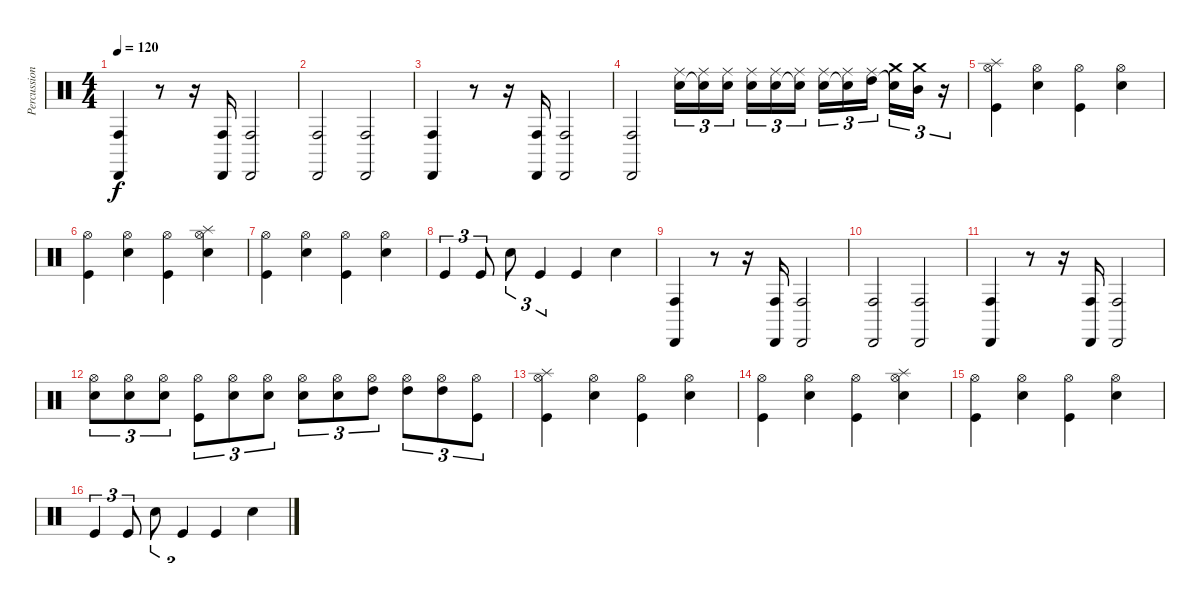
\track ("Percussion" "Percussion") {instrument percussion}
\staff {score}
\articulation defaults
\ts (4 4)
\tempo 120
\clef neutral
\ks c
("Conga high (hit)" "Cabasa (hit)").4{dy f} r.8 r.16 ("Conga high (hit)" "Cabasa (hit)").16 ("Conga high (hit)" "Cabasa (hit)").2 |
("Conga high (hit)" "Cabasa (hit)").2 ("Conga high (hit)" "Cabasa (hit)").2 |
("Conga high (hit)" "Cabasa (hit)").4 r.8 r.16 ("Conga high (hit)" "Cabasa (hit)").16 ("Conga high (hit)" "Cabasa (hit)").2 |
("Conga high (hit)" "Cabasa (hit)").2 ("Snare (hit) 2" "Ride (middle)").16{tu (3 2)} ("Snare (hit) 2"{t} "Ride (middle)").16{tu (3 2)} ("Snare (hit) 2" "Ride (middle)").16{tu (3 2)} ("Snare (hit) 2" "Ride (middle)").16{tu (3 2)} ("Snare (hit) 2" "Ride (middle)").16{tu (3 2)} ("Snare (hit) 2"{t} "Ride (middle)").16{tu (3 2)} ("Snare (hit) 2" "Ride (middle)").16{tu (3 2)} ("Snare (hit)"{t} "Ride (middle)").16{tu (3 2)} ("High Tom (hit)" "Ride (middle)").16{tu (3 2)} ("Snare (hit)"{t} "Crash medium (hit)").16{tu (3 2)} ("Mid Tom (hit)" "Crash medium (hit)").16{tu (3 2)} r.16{tu (3 2)} |
("Kick (hit)" "Hi-Hat (open)" "Splash (hit)").4 ("Snare (hit) 2" "Hi-Hat (open)").4 ("Kick (hit)" "Hi-Hat (open)").4 ("Snare (hit) 2" "Hi-Hat (open)").4 |
("Kick (hit)" "Hi-Hat (open)").4 ("Snare (hit) 2" "Hi-Hat (open)").4 ("Kick (hit)" "Hi-Hat (open)").4 ("Snare (hit) 2" "Hi-Hat (open)" "Splash (hit)").4 |
("Kick (hit)" "Hi-Hat (open)").4 ("Snare (hit) 2" "Hi-Hat (open)").4 ("Kick (hit)" "Hi-Hat (open)").4 ("Snare (hit) 2" "Hi-Hat (open)").4 |
"Kick (hit)".4{tu (3 2)} "Kick (hit)".8{tu (3 2)} "Snare (hit) 2".8{tu (3 2)} "Kick (hit)".4{tu (3 2)} "Kick (hit)".4 "Snare (hit) 2".4 |
("Conga high (hit)" "Cabasa (hit)").4 r.8 r.16 ("Conga high (hit)" "Cabasa (hit)").16 ("Conga high (hit)" "Cabasa (hit)").2 |
("Conga high (hit)" "Cabasa (hit)").2 ("Conga high (hit)" "Cabasa (hit)").2 |
("Conga high (hit)" "Cabasa (hit)").4 r.8 r.16 ("Conga high (hit)" "Cabasa (hit)").16 ("Conga high (hit)" "Cabasa (hit)").2 |
("Snare (hit) 2" "Hi-Hat (open)").8{tu (3 2)} ("Snare (hit) 2" "Hi-Hat (open)").8{tu (3 2)} ("Snare (hit) 2" "Hi-Hat (open)").8{tu (3 2)} ("Kick (hit)" "Hi-Hat (open)").8{tu (3 2)} ("Snare (hit) 2" "Hi-Hat (open)").8{tu (3 2)} ("Snare (hit) 2" "Hi-Hat (open)").8{tu (3 2)} ("Snare (hit) 2" "Hi-Hat (open)").8{tu (3 2)} ("Snare (hit) 2" "Hi-Hat (open)").8{tu (3 2)} ("High Tom (hit)" "Hi-Hat (open)").8{tu (3 2)} ("High Tom (hit)" "Hi-Hat (open)").8{tu (3 2)} ("High Tom (hit)" "Hi-Hat (open)").8{tu (3 2)} ("Kick (hit)" "Hi-Hat (open)").8{tu (3 2)} |
("Kick (hit)" "Hi-Hat (open)" "Splash (hit)").4 ("Snare (hit) 2" "Hi-Hat (open)").4 ("Kick (hit)" "Hi-Hat (open)").4 ("Snare (hit) 2" "Hi-Hat (open)").4 |
("Kick (hit)" "Hi-Hat (open)").4 ("Snare (hit) 2" "Hi-Hat (open)").4 ("Kick (hit)" "Hi-Hat (open)").4 ("Snare (hit) 2" "Hi-Hat (open)" "Splash (hit)").4 |
("Kick (hit)" "Hi-Hat (open)").4 ("Snare (hit) 2" "Hi-Hat (open)").4 ("Kick (hit)" "Hi-Hat (open)").4 ("Snare (hit) 2" "Hi-Hat (open)").4 |
"Kick (hit)".4{tu (3 2)} "Kick (hit)".8{tu (3 2)} "Snare (hit) 2".8{tu (3 2)} "Kick (hit)".4{tu (3 2)} "Kick (hit)".4 "Snare (hit) 2".4
